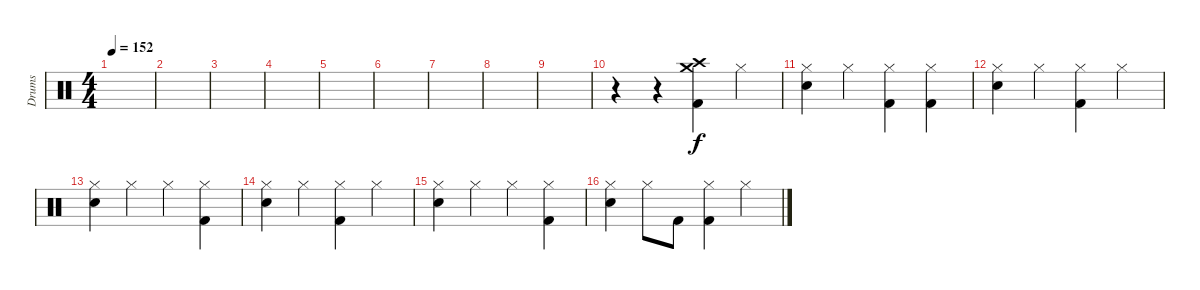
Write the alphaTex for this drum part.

\track ("Drums" "Drums") {instrument percussion}
\staff {score}
\articulation defaults
\ts (4 4)
\tempo 152
\clef neutral
\ks c
|
|
|
|
|
|
|
|
|
r.4 r.4 ("Kick (hit) 2" "Crash high (hit)" "Crash medium (hit)").4 "Hi-Hat (closed)".4 |
("Electric Snare (hit)" "Hi-Hat (closed)").4 "Hi-Hat (closed)".4 ("Kick (hit) 2" "Hi-Hat (closed)").4 ("Kick (hit) 2" "Hi-Hat (closed)").4 |
("Electric Snare (hit)" "Hi-Hat (closed)").4 "Hi-Hat (closed)".4 ("Kick (hit) 2" "Hi-Hat (closed)").4 "Hi-Hat (closed)".4 |
("Electric Snare (hit)" "Hi-Hat (closed)").4 "Hi-Hat (closed)".4 "Hi-Hat (closed)".4 ("Kick (hit) 2" "Hi-Hat (closed)").4 |
("Electric Snare (hit)" "Hi-Hat (closed)").4 "Hi-Hat (closed)".4 ("Kick (hit) 2" "Hi-Hat (closed)").4 "Hi-Hat (closed)".4 |
("Electric Snare (hit)" "Hi-Hat (closed)").4 "Hi-Hat (closed)".4 "Hi-Hat (closed)".4 ("Kick (hit) 2" "Hi-Hat (closed)").4 |
("Electric Snare (hit)" "Hi-Hat (closed)").4 "Hi-Hat (closed)".8 "Kick (hit) 2".8 ("Kick (hit) 2" "Hi-Hat (closed)").4 "Hi-Hat (closed)".4
